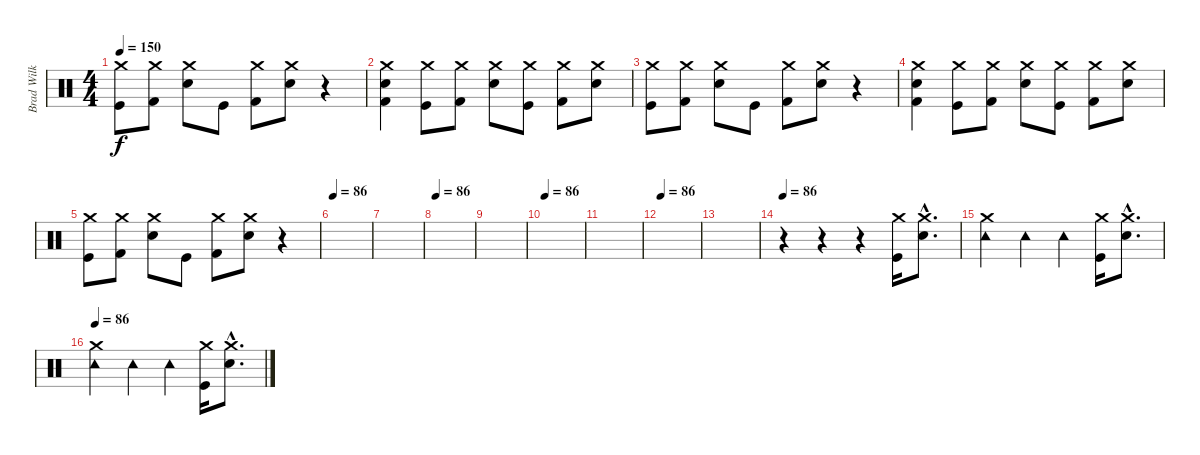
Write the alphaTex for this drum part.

\track ("Brad Wilk" "Brad Wilk") {instrument percussion}
\staff {score}
\articulation defaults
\ts (4 4)
\tempo 150
\clef neutral
\ks c
("Kick (hit)" "Crash medium (hit)").8{dy f} ("Kick (hit) 2" "Crash medium (hit)").8 ("Snare (hit) 2" "Crash medium (hit)").8 "Kick (hit)".8 ("Kick (hit) 2" "Crash medium (hit)").8 ("Snare (hit) 2" "Crash medium (hit)").8 r.4 |
("Snare (hit) 2" "Kick (hit) 2" "Crash medium (hit)").4 ("Kick (hit)" "Crash medium (hit)").8 ("Kick (hit) 2" "Crash medium (hit)").8 ("Snare (hit) 2" "Crash medium (hit)").8 ("Kick (hit)" "Crash medium (hit)").8 ("Kick (hit) 2" "Crash medium (hit)").8 ("Snare (hit) 2" "Crash medium (hit)").8 |
("Kick (hit)" "Crash medium (hit)").8 ("Kick (hit) 2" "Crash medium (hit)").8 ("Snare (hit) 2" "Crash medium (hit)").8 "Kick (hit)".8 ("Kick (hit) 2" "Crash medium (hit)").8 ("Snare (hit) 2" "Crash medium (hit)").8 r.4 |
("Snare (hit) 2" "Kick (hit) 2" "Crash medium (hit)").4 ("Kick (hit)" "Crash medium (hit)").8 ("Kick (hit) 2" "Crash medium (hit)").8 ("Snare (hit) 2" "Crash medium (hit)").8 ("Kick (hit)" "Crash medium (hit)").8 ("Kick (hit) 2" "Crash medium (hit)").8 ("Snare (hit) 2" "Crash medium (hit)").8 |
("Kick (hit)" "Crash medium (hit)").8 ("Kick (hit) 2" "Crash medium (hit)").8 ("Snare (hit) 2" "Crash medium (hit)").8 "Kick (hit)".8 ("Kick (hit) 2" "Crash medium (hit)").8 ("Snare (hit) 2" "Crash medium (hit)").8 r.4 |
\tempo 86
|
|
\tempo 86
|
|
\tempo 86
|
|
\tempo 86
|
|
\tempo 86
r.4 r.4 r.4 ("Crash medium (hit)" "Kick (hit)").16 ("Crash medium (hit)"{hac} "Snare (hit) 2"{hac}).8{d} |
("Crash medium (hit)" "Tambourine (hit)").4 "Tambourine (hit)".4 "Tambourine (hit)".4 ("Crash medium (hit)" "Kick (hit)").16 ("Crash medium (hit)"{hac} "Snare (hit) 2"{hac}).8{d} |
\tempo 86
("Crash medium (hit)" "Tambourine (hit)").4 "Tambourine (hit)".4 "Tambourine (hit)".4 ("Crash medium (hit)" "Kick (hit)").16 ("Crash medium (hit)"{hac} "Snare (hit) 2"{hac}).8{d}
